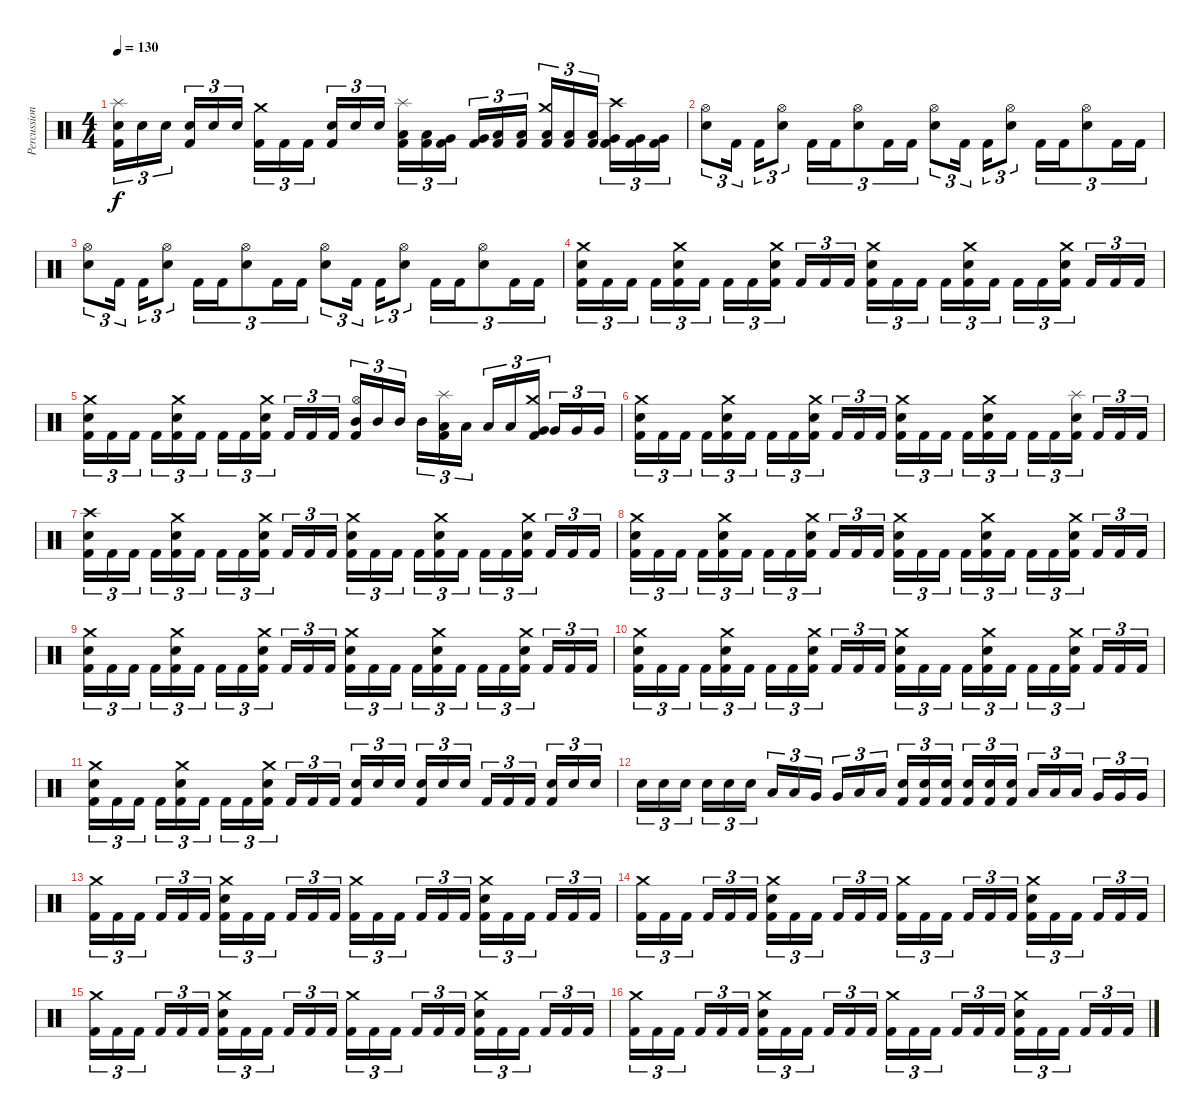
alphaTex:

\track ("Percussion" "Percussion") {instrument percussion}
\staff {score}
\articulation defaults
\ts (4 4)
\tempo 130
\clef neutral
\ks c
("Splash (hit)" "Snare (hit) 2" "Kick (hit) 2").16{tu (3 2) dy f} "Snare (hit) 2".16{tu (3 2)} "Snare (hit) 2".16{tu (3 2)} ("Snare (hit) 2" "Kick (hit) 2").16{tu (3 2)} "Snare (hit) 2".16{tu (3 2)} "Snare (hit) 2".16{tu (3 2)} ("Crash medium (hit)" "Kick (hit) 2").16{tu (3 2)} "Kick (hit) 2".16{tu (3 2)} "Kick (hit) 2".16{tu (3 2)} ("Snare (hit) 2" "Kick (hit) 2").16{tu (3 2)} "Snare (hit) 2".16{tu (3 2)} "Snare (hit) 2".16{tu (3 2)} ("Splash (hit)" "Low Tom (hit)" "Kick (hit) 2").16{tu (3 2)} ("Low Tom (hit)" "Kick (hit) 2").16{tu (3 2)} ("Very Low Tom (hit)" "Kick (hit) 2").16{tu (3 2)} ("Very Low Tom (hit)" "Kick (hit) 2").16{tu (3 2)} ("Low Floor Tom (hit)" "Kick (hit) 2").16{tu (3 2)} ("Low Floor Tom (hit)" "Kick (hit) 2").16{tu (3 2)} ("Crash medium (hit)" "Low Tom (hit)" "Kick (hit) 2").16{tu (3 2)} ("Low Tom (hit)" "Kick (hit) 2").16{tu (3 2)} ("Low Tom (hit)" "Kick (hit) 2").16{tu (3 2)} ("Crash high (hit)" "Very Low Tom (hit)" "Kick (hit) 2").16{tu (3 2)} ("Very Low Tom (hit)" "Kick (hit) 2").16{tu (3 2)} ("Very Low Tom (hit)" "Kick (hit) 2").16{tu (3 2)} |
("Hi-Hat (open)" "Snare (hit) 2").8{tu (3 2)} "Kick (hit) 2".16{tu (3 2)} "Kick (hit) 2".16{tu (3 2)} ("Hi-Hat (open)" "Snare (hit) 2").8{tu (3 2)} "Kick (hit) 2".16{tu (3 2)} "Kick (hit) 2".16{tu (3 2)} ("Hi-Hat (open)" "Snare (hit) 2").8{tu (3 2)} "Kick (hit) 2".16{tu (3 2)} "Kick (hit) 2".16{tu (3 2)} ("Hi-Hat (open)" "Snare (hit) 2").8{tu (3 2)} "Kick (hit) 2".16{tu (3 2)} "Kick (hit) 2".16{tu (3 2)} ("Hi-Hat (open)" "Snare (hit) 2").8{tu (3 2)} "Kick (hit) 2".16{tu (3 2)} "Kick (hit) 2".16{tu (3 2)} ("Hi-Hat (open)" "Snare (hit) 2").8{tu (3 2)} "Kick (hit) 2".16{tu (3 2)} "Kick (hit) 2".16{tu (3 2)} |
("Hi-Hat (open)" "Snare (hit) 2").8{tu (3 2)} "Kick (hit) 2".16{tu (3 2)} "Kick (hit) 2".16{tu (3 2)} ("Hi-Hat (open)" "Snare (hit) 2").8{tu (3 2)} "Kick (hit) 2".16{tu (3 2)} "Kick (hit) 2".16{tu (3 2)} ("Hi-Hat (open)" "Snare (hit) 2").8{tu (3 2)} "Kick (hit) 2".16{tu (3 2)} "Kick (hit) 2".16{tu (3 2)} ("Hi-Hat (open)" "Snare (hit) 2").8{tu (3 2)} "Kick (hit) 2".16{tu (3 2)} "Kick (hit) 2".16{tu (3 2)} ("Hi-Hat (open)" "Snare (hit) 2").8{tu (3 2)} "Kick (hit) 2".16{tu (3 2)} "Kick (hit) 2".16{tu (3 2)} ("Hi-Hat (open)" "Snare (hit) 2").8{tu (3 2)} "Kick (hit) 2".16{tu (3 2)} "Kick (hit) 2".16{tu (3 2)} |
("Crash medium (hit)" "Snare (hit) 2" "Kick (hit) 2").16{tu (3 2)} "Kick (hit) 2".16{tu (3 2)} "Kick (hit) 2".16{tu (3 2)} "Kick (hit) 2".16{tu (3 2)} ("Crash medium (hit)" "Snare (hit) 2" "Kick (hit) 2").16{tu (3 2)} "Kick (hit) 2".16{tu (3 2)} "Kick (hit) 2".16{tu (3 2)} "Kick (hit) 2".16{tu (3 2)} ("Crash medium (hit)" "Snare (hit) 2" "Kick (hit) 2").16{tu (3 2)} "Kick (hit) 2".16{tu (3 2)} "Kick (hit) 2".16{tu (3 2)} "Kick (hit) 2".16{tu (3 2)} ("Crash medium (hit)" "Snare (hit) 2" "Kick (hit) 2").16{tu (3 2)} "Kick (hit) 2".16{tu (3 2)} "Kick (hit) 2".16{tu (3 2)} "Kick (hit) 2".16{tu (3 2)} ("Crash medium (hit)" "Snare (hit) 2" "Kick (hit) 2").16{tu (3 2)} "Kick (hit) 2".16{tu (3 2)} "Kick (hit) 2".16{tu (3 2)} "Kick (hit) 2".16{tu (3 2)} ("Crash medium (hit)" "Snare (hit) 2" "Kick (hit) 2").16{tu (3 2)} "Kick (hit) 2".16{tu (3 2)} "Kick (hit) 2".16{tu (3 2)} "Kick (hit) 2".16{tu (3 2)} |
("Crash medium (hit)" "Snare (hit) 2" "Kick (hit) 2").16{tu (3 2)} "Kick (hit) 2".16{tu (3 2)} "Kick (hit) 2".16{tu (3 2)} "Kick (hit) 2".16{tu (3 2)} ("Crash medium (hit)" "Snare (hit) 2" "Kick (hit) 2").16{tu (3 2)} "Kick (hit) 2".16{tu (3 2)} "Kick (hit) 2".16{tu (3 2)} "Kick (hit) 2".16{tu (3 2)} ("Crash medium (hit)" "Snare (hit) 2" "Kick (hit) 2").16{tu (3 2)} "Kick (hit) 2".16{tu (3 2)} "Kick (hit) 2".16{tu (3 2)} "Kick (hit) 2".16{tu (3 2)} ("Hi-Hat (open)" "Mid Tom (hit)" "Kick (hit) 2").16{tu (3 2)} "Mid Tom (hit)".16{tu (3 2)} "Mid Tom (hit)".16{tu (3 2)} "Mid Tom (hit)".16{tu (3 2)} ("Splash (hit)" "Low Tom (hit)" "Kick (hit) 2").16{tu (3 2)} "Low Tom (hit)".16{tu (3 2)} "Low Tom (hit)".16{tu (3 2)} "Low Tom (hit)".16{tu (3 2)} ("Crash medium (hit)" "Very Low Tom (hit)" "Kick (hit) 2").16{tu (3 2)} "Very Low Tom (hit)".16{tu (3 2)} "Very Low Tom (hit)".16{tu (3 2)} "Very Low Tom (hit)".16{tu (3 2)} |
("Crash medium (hit)" "Snare (hit) 2" "Kick (hit) 2").16{tu (3 2)} "Kick (hit) 2".16{tu (3 2)} "Kick (hit) 2".16{tu (3 2)} "Kick (hit) 2".16{tu (3 2)} ("Crash medium (hit)" "Snare (hit) 2" "Kick (hit) 2").16{tu (3 2)} "Kick (hit) 2".16{tu (3 2)} "Kick (hit) 2".16{tu (3 2)} "Kick (hit) 2".16{tu (3 2)} ("Crash medium (hit)" "Snare (hit) 2" "Kick (hit) 2").16{tu (3 2)} "Kick (hit) 2".16{tu (3 2)} "Kick (hit) 2".16{tu (3 2)} "Kick (hit) 2".16{tu (3 2)} ("Crash medium (hit)" "Snare (hit) 2" "Kick (hit) 2").16{tu (3 2)} "Kick (hit) 2".16{tu (3 2)} "Kick (hit) 2".16{tu (3 2)} "Kick (hit) 2".16{tu (3 2)} ("Crash medium (hit)" "Snare (hit) 2" "Kick (hit) 2").16{tu (3 2)} "Kick (hit) 2".16{tu (3 2)} "Kick (hit) 2".16{tu (3 2)} "Kick (hit) 2".16{tu (3 2)} ("Splash (hit)" "Snare (hit) 2" "Kick (hit) 2").16{tu (3 2)} "Kick (hit) 2".16{tu (3 2)} "Kick (hit) 2".16{tu (3 2)} "Kick (hit) 2".16{tu (3 2)} |
("Crash high (hit)" "Snare (hit) 2" "Kick (hit) 2").16{tu (3 2)} "Kick (hit) 2".16{tu (3 2)} "Kick (hit) 2".16{tu (3 2)} "Kick (hit) 2".16{tu (3 2)} ("Crash medium (hit)" "Snare (hit) 2" "Kick (hit) 2").16{tu (3 2)} "Kick (hit) 2".16{tu (3 2)} "Kick (hit) 2".16{tu (3 2)} "Kick (hit) 2".16{tu (3 2)} ("Crash medium (hit)" "Snare (hit) 2" "Kick (hit) 2").16{tu (3 2)} "Kick (hit) 2".16{tu (3 2)} "Kick (hit) 2".16{tu (3 2)} "Kick (hit) 2".16{tu (3 2)} ("Crash medium (hit)" "Snare (hit) 2" "Kick (hit) 2").16{tu (3 2)} "Kick (hit) 2".16{tu (3 2)} "Kick (hit) 2".16{tu (3 2)} "Kick (hit) 2".16{tu (3 2)} ("Crash medium (hit)" "Snare (hit) 2" "Kick (hit) 2").16{tu (3 2)} "Kick (hit) 2".16{tu (3 2)} "Kick (hit) 2".16{tu (3 2)} "Kick (hit) 2".16{tu (3 2)} ("Crash medium (hit)" "Snare (hit) 2" "Kick (hit) 2").16{tu (3 2)} "Kick (hit) 2".16{tu (3 2)} "Kick (hit) 2".16{tu (3 2)} "Kick (hit) 2".16{tu (3 2)} |
("Crash medium (hit)" "Snare (hit) 2" "Kick (hit) 2").16{tu (3 2)} "Kick (hit) 2".16{tu (3 2)} "Kick (hit) 2".16{tu (3 2)} "Kick (hit) 2".16{tu (3 2)} ("Crash medium (hit)" "Snare (hit) 2" "Kick (hit) 2").16{tu (3 2)} "Kick (hit) 2".16{tu (3 2)} "Kick (hit) 2".16{tu (3 2)} "Kick (hit) 2".16{tu (3 2)} ("Crash medium (hit)" "Snare (hit) 2" "Kick (hit) 2").16{tu (3 2)} "Kick (hit) 2".16{tu (3 2)} "Kick (hit) 2".16{tu (3 2)} "Kick (hit) 2".16{tu (3 2)} ("Crash medium (hit)" "Snare (hit) 2" "Kick (hit) 2").16{tu (3 2)} "Kick (hit) 2".16{tu (3 2)} "Kick (hit) 2".16{tu (3 2)} "Kick (hit) 2".16{tu (3 2)} ("Crash medium (hit)" "Snare (hit) 2" "Kick (hit) 2").16{tu (3 2)} "Kick (hit) 2".16{tu (3 2)} "Kick (hit) 2".16{tu (3 2)} "Kick (hit) 2".16{tu (3 2)} ("Crash medium (hit)" "Snare (hit) 2" "Kick (hit) 2").16{tu (3 2)} "Kick (hit) 2".16{tu (3 2)} "Kick (hit) 2".16{tu (3 2)} "Kick (hit) 2".16{tu (3 2)} |
("Crash medium (hit)" "Snare (hit) 2" "Kick (hit) 2").16{tu (3 2)} "Kick (hit) 2".16{tu (3 2)} "Kick (hit) 2".16{tu (3 2)} "Kick (hit) 2".16{tu (3 2)} ("Crash medium (hit)" "Snare (hit) 2" "Kick (hit) 2").16{tu (3 2)} "Kick (hit) 2".16{tu (3 2)} "Kick (hit) 2".16{tu (3 2)} "Kick (hit) 2".16{tu (3 2)} ("Crash medium (hit)" "Snare (hit) 2" "Kick (hit) 2").16{tu (3 2)} "Kick (hit) 2".16{tu (3 2)} "Kick (hit) 2".16{tu (3 2)} "Kick (hit) 2".16{tu (3 2)} ("Crash medium (hit)" "Snare (hit) 2" "Kick (hit) 2").16{tu (3 2)} "Kick (hit) 2".16{tu (3 2)} "Kick (hit) 2".16{tu (3 2)} "Kick (hit) 2".16{tu (3 2)} ("Crash medium (hit)" "Snare (hit) 2" "Kick (hit) 2").16{tu (3 2)} "Kick (hit) 2".16{tu (3 2)} "Kick (hit) 2".16{tu (3 2)} "Kick (hit) 2".16{tu (3 2)} ("Crash medium (hit)" "Snare (hit) 2" "Kick (hit) 2").16{tu (3 2)} "Kick (hit) 2".16{tu (3 2)} "Kick (hit) 2".16{tu (3 2)} "Kick (hit) 2".16{tu (3 2)} |
("Crash medium (hit)" "Snare (hit) 2" "Kick (hit) 2").16{tu (3 2)} "Kick (hit) 2".16{tu (3 2)} "Kick (hit) 2".16{tu (3 2)} "Kick (hit) 2".16{tu (3 2)} ("Crash medium (hit)" "Snare (hit) 2" "Kick (hit) 2").16{tu (3 2)} "Kick (hit) 2".16{tu (3 2)} "Kick (hit) 2".16{tu (3 2)} "Kick (hit) 2".16{tu (3 2)} ("Crash medium (hit)" "Snare (hit) 2" "Kick (hit) 2").16{tu (3 2)} "Kick (hit) 2".16{tu (3 2)} "Kick (hit) 2".16{tu (3 2)} "Kick (hit) 2".16{tu (3 2)} ("Crash medium (hit)" "Snare (hit) 2" "Kick (hit) 2").16{tu (3 2)} "Kick (hit) 2".16{tu (3 2)} "Kick (hit) 2".16{tu (3 2)} "Kick (hit) 2".16{tu (3 2)} ("Crash medium (hit)" "Snare (hit) 2" "Kick (hit) 2").16{tu (3 2)} "Kick (hit) 2".16{tu (3 2)} "Kick (hit) 2".16{tu (3 2)} "Kick (hit) 2".16{tu (3 2)} ("Crash medium (hit)" "Snare (hit) 2" "Kick (hit) 2").16{tu (3 2)} "Kick (hit) 2".16{tu (3 2)} "Kick (hit) 2".16{tu (3 2)} "Kick (hit) 2".16{tu (3 2)} |
("Crash medium (hit)" "Snare (hit) 2" "Kick (hit) 2").16{tu (3 2)} "Kick (hit) 2".16{tu (3 2)} "Kick (hit) 2".16{tu (3 2)} "Kick (hit) 2".16{tu (3 2)} ("Crash medium (hit)" "Snare (hit) 2" "Kick (hit) 2").16{tu (3 2)} "Kick (hit) 2".16{tu (3 2)} "Kick (hit) 2".16{tu (3 2)} "Kick (hit) 2".16{tu (3 2)} ("Crash medium (hit)" "Snare (hit) 2" "Kick (hit) 2").16{tu (3 2)} "Kick (hit) 2".16{tu (3 2)} "Kick (hit) 2".16{tu (3 2)} "Kick (hit) 2".16{tu (3 2)} ("Snare (hit) 2" "Kick (hit) 2").16{tu (3 2)} "Snare (hit) 2".16{tu (3 2)} "Snare (hit) 2".16{tu (3 2)} ("Snare (hit) 2" "Kick (hit) 2").16{tu (3 2)} "Snare (hit) 2".16{tu (3 2)} "Snare (hit) 2".16{tu (3 2)} "Kick (hit) 2".16{tu (3 2)} "Kick (hit) 2".16{tu (3 2)} "Kick (hit) 2".16{tu (3 2)} ("Snare (hit) 2" "Kick (hit) 2").16{tu (3 2)} "Snare (hit) 2".16{tu (3 2)} "Snare (hit) 2".16{tu (3 2)} |
"Snare (hit) 2".16{tu (3 2)} "Snare (hit) 2".16{tu (3 2)} "Snare (hit) 2".16{tu (3 2)} "Snare (hit) 2".16{tu (3 2)} "Snare (hit) 2".16{tu (3 2)} "Snare (hit) 2".16{tu (3 2)} "Low Tom (hit)".16{tu (3 2)} "Low Tom (hit)".16{tu (3 2)} "Very Low Tom (hit)".16{tu (3 2)} "Very Low Tom (hit)".16{tu (3 2)} "Low Floor Tom (hit)".16{tu (3 2)} "Low Floor Tom (hit)".16{tu (3 2)} ("Snare (hit) 2" "Kick (hit) 2").16{tu (3 2)} ("Snare (hit) 2" "Kick (hit) 2").16{tu (3 2)} ("Snare (hit) 2" "Kick (hit) 2").16{tu (3 2)} ("Snare (hit) 2" "Kick (hit) 2").16{tu (3 2)} ("Snare (hit) 2" "Kick (hit) 2").16{tu (3 2)} ("Snare (hit) 2" "Kick (hit) 2").16{tu (3 2)} "Low Tom (hit)".16{tu (3 2)} "Low Tom (hit)".16{tu (3 2)} "Low Tom (hit)".16{tu (3 2)} "Very Low Tom (hit)".16{tu (3 2)} "Very Low Tom (hit)".16{tu (3 2)} "Very Low Tom (hit)".16{tu (3 2)} |
("Crash medium (hit)" "Kick (hit) 2").16{tu (3 2)} "Kick (hit) 2".16{tu (3 2)} "Kick (hit) 2".16{tu (3 2)} "Kick (hit) 2".16{tu (3 2)} "Kick (hit) 2".16{tu (3 2)} "Kick (hit) 2".16{tu (3 2)} ("Crash medium (hit)" "Snare (hit) 2" "Kick (hit) 2").16{tu (3 2)} "Kick (hit) 2".16{tu (3 2)} "Kick (hit) 2".16{tu (3 2)} "Kick (hit) 2".16{tu (3 2)} "Kick (hit) 2".16{tu (3 2)} "Kick (hit) 2".16{tu (3 2)} ("Crash medium (hit)" "Kick (hit) 2").16{tu (3 2)} "Kick (hit) 2".16{tu (3 2)} "Kick (hit) 2".16{tu (3 2)} "Kick (hit) 2".16{tu (3 2)} "Kick (hit) 2".16{tu (3 2)} "Kick (hit) 2".16{tu (3 2)} ("Crash medium (hit)" "Snare (hit) 2" "Kick (hit) 2").16{tu (3 2)} "Kick (hit) 2".16{tu (3 2)} "Kick (hit) 2".16{tu (3 2)} "Kick (hit) 2".16{tu (3 2)} "Kick (hit) 2".16{tu (3 2)} "Kick (hit) 2".16{tu (3 2)} |
("Crash medium (hit)" "Kick (hit) 2").16{tu (3 2)} "Kick (hit) 2".16{tu (3 2)} "Kick (hit) 2".16{tu (3 2)} "Kick (hit) 2".16{tu (3 2)} "Kick (hit) 2".16{tu (3 2)} "Kick (hit) 2".16{tu (3 2)} ("Crash medium (hit)" "Snare (hit) 2" "Kick (hit) 2").16{tu (3 2)} "Kick (hit) 2".16{tu (3 2)} "Kick (hit) 2".16{tu (3 2)} "Kick (hit) 2".16{tu (3 2)} "Kick (hit) 2".16{tu (3 2)} "Kick (hit) 2".16{tu (3 2)} ("Crash medium (hit)" "Kick (hit) 2").16{tu (3 2)} "Kick (hit) 2".16{tu (3 2)} "Kick (hit) 2".16{tu (3 2)} "Kick (hit) 2".16{tu (3 2)} "Kick (hit) 2".16{tu (3 2)} "Kick (hit) 2".16{tu (3 2)} ("Crash medium (hit)" "Snare (hit) 2" "Kick (hit) 2").16{tu (3 2)} "Kick (hit) 2".16{tu (3 2)} "Kick (hit) 2".16{tu (3 2)} "Kick (hit) 2".16{tu (3 2)} "Kick (hit) 2".16{tu (3 2)} "Kick (hit) 2".16{tu (3 2)} |
("Crash medium (hit)" "Kick (hit) 2").16{tu (3 2)} "Kick (hit) 2".16{tu (3 2)} "Kick (hit) 2".16{tu (3 2)} "Kick (hit) 2".16{tu (3 2)} "Kick (hit) 2".16{tu (3 2)} "Kick (hit) 2".16{tu (3 2)} ("Crash medium (hit)" "Snare (hit) 2" "Kick (hit) 2").16{tu (3 2)} "Kick (hit) 2".16{tu (3 2)} "Kick (hit) 2".16{tu (3 2)} "Kick (hit) 2".16{tu (3 2)} "Kick (hit) 2".16{tu (3 2)} "Kick (hit) 2".16{tu (3 2)} ("Crash medium (hit)" "Kick (hit) 2").16{tu (3 2)} "Kick (hit) 2".16{tu (3 2)} "Kick (hit) 2".16{tu (3 2)} "Kick (hit) 2".16{tu (3 2)} "Kick (hit) 2".16{tu (3 2)} "Kick (hit) 2".16{tu (3 2)} ("Crash medium (hit)" "Snare (hit) 2" "Kick (hit) 2").16{tu (3 2)} "Kick (hit) 2".16{tu (3 2)} "Kick (hit) 2".16{tu (3 2)} "Kick (hit) 2".16{tu (3 2)} "Kick (hit) 2".16{tu (3 2)} "Kick (hit) 2".16{tu (3 2)} |
("Crash medium (hit)" "Kick (hit) 2").16{tu (3 2)} "Kick (hit) 2".16{tu (3 2)} "Kick (hit) 2".16{tu (3 2)} "Kick (hit) 2".16{tu (3 2)} "Kick (hit) 2".16{tu (3 2)} "Kick (hit) 2".16{tu (3 2)} ("Crash medium (hit)" "Snare (hit) 2" "Kick (hit) 2").16{tu (3 2)} "Kick (hit) 2".16{tu (3 2)} "Kick (hit) 2".16{tu (3 2)} "Kick (hit) 2".16{tu (3 2)} "Kick (hit) 2".16{tu (3 2)} "Kick (hit) 2".16{tu (3 2)} ("Crash medium (hit)" "Kick (hit) 2").16{tu (3 2)} "Kick (hit) 2".16{tu (3 2)} "Kick (hit) 2".16{tu (3 2)} "Kick (hit) 2".16{tu (3 2)} "Kick (hit) 2".16{tu (3 2)} "Kick (hit) 2".16{tu (3 2)} ("Crash medium (hit)" "Snare (hit) 2" "Kick (hit) 2").16{tu (3 2)} "Kick (hit) 2".16{tu (3 2)} "Kick (hit) 2".16{tu (3 2)} "Kick (hit) 2".16{tu (3 2)} "Kick (hit) 2".16{tu (3 2)} "Kick (hit) 2".16{tu (3 2)}
